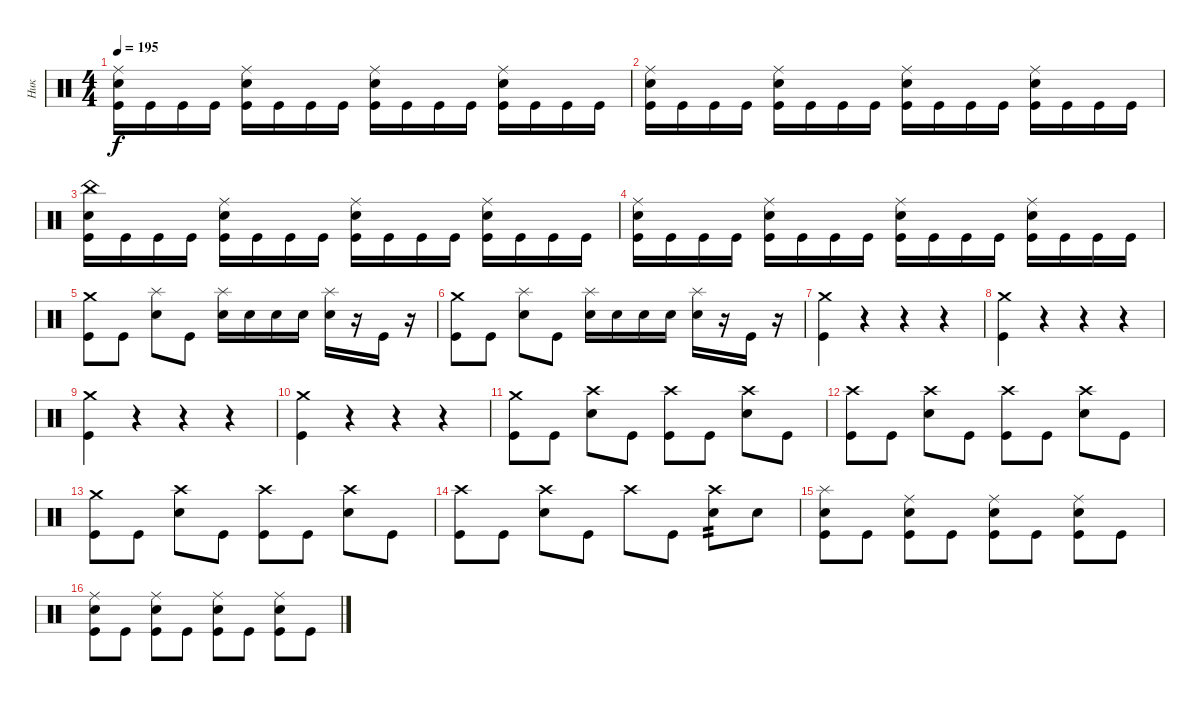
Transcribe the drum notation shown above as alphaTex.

\track ("Ник" "Ник") {instrument percussion}
\staff {score}
\articulation defaults
\ts (4 4)
\tempo 195
\clef neutral
\ks c
("Ride (middle)" "Snare (hit) 2" "Kick (hit)").16{dy f} "Kick (hit)".16 "Kick (hit)".16 "Kick (hit)".16 ("Ride (middle)" "Snare (hit) 2" "Kick (hit)").16 "Kick (hit)".16 "Kick (hit)".16 "Kick (hit)".16 ("Ride (middle)" "Snare (hit) 2" "Kick (hit)").16 "Kick (hit)".16 "Kick (hit)".16 "Kick (hit)".16 ("Ride (middle)" "Snare (hit) 2" "Kick (hit)").16 "Kick (hit)".16 "Kick (hit)".16 "Kick (hit)".16 |
("Ride (middle)" "Snare (hit) 2" "Kick (hit)").16 "Kick (hit)".16 "Kick (hit)".16 "Kick (hit)".16 ("Ride (middle)" "Snare (hit) 2" "Kick (hit)").16 "Kick (hit)".16 "Kick (hit)".16 "Kick (hit)".16 ("Ride (middle)" "Snare (hit) 2" "Kick (hit)").16 "Kick (hit)".16 "Kick (hit)".16 "Kick (hit)".16 ("Ride (middle)" "Snare (hit) 2" "Kick (hit)").16 "Kick (hit)".16 "Kick (hit)".16 "Kick (hit)".16 |
("China (hit)" "Snare (hit) 2" "Kick (hit)").16 "Kick (hit)".16 "Kick (hit)".16 "Kick (hit)".16 ("Ride (middle)" "Snare (hit) 2" "Kick (hit)").16 "Kick (hit)".16 "Kick (hit)".16 "Kick (hit)".16 ("Ride (middle)" "Snare (hit) 2" "Kick (hit)").16 "Kick (hit)".16 "Kick (hit)".16 "Kick (hit)".16 ("Ride (middle)" "Snare (hit) 2" "Kick (hit)").16 "Kick (hit)".16 "Kick (hit)".16 "Kick (hit)".16 |
("Ride (middle)" "Snare (hit) 2" "Kick (hit)").16 "Kick (hit)".16 "Kick (hit)".16 "Kick (hit)".16 ("Ride (middle)" "Snare (hit) 2" "Kick (hit)").16 "Kick (hit)".16 "Kick (hit)".16 "Kick (hit)".16 ("Ride (middle)" "Snare (hit) 2" "Kick (hit)").16 "Kick (hit)".16 "Kick (hit)".16 "Kick (hit)".16 ("Ride (middle)" "Snare (hit) 2" "Kick (hit)").16 "Kick (hit)".16 "Kick (hit)".16 "Kick (hit)".16 |
("Crash medium (hit)" "Kick (hit)").8 "Kick (hit)".8 ("Splash (hit)" "Snare (hit) 2").8 "Kick (hit)".8 ("Splash (hit)" "Snare (hit) 2").16 "Snare (hit) 2".16 "Snare (hit) 2".16 "Snare (hit) 2".16 ("Splash (hit)" "Snare (hit) 2").16 r.16 "Kick (hit)".16 r.16 |
("Crash medium (hit)" "Kick (hit)").8 "Kick (hit)".8 ("Splash (hit)" "Snare (hit) 2").8 "Kick (hit)".8 ("Splash (hit)" "Snare (hit) 2").16 "Snare (hit) 2".16 "Snare (hit) 2".16 "Snare (hit) 2".16 ("Splash (hit)" "Snare (hit) 2").16 r.16 "Kick (hit)".16 r.16 |
("Crash medium (hit)" "Kick (hit)").4 r.4 r.4 r.4 |
("Crash medium (hit)" "Kick (hit)").4 r.4 r.4 r.4 |
("Crash medium (hit)" "Kick (hit)").4 r.4 r.4 r.4 |
("Crash medium (hit)" "Kick (hit)").4 r.4 r.4 r.4 |
("Crash medium (hit)" "Kick (hit)").8 "Kick (hit)".8 ("Crash high (hit)" "Snare (hit) 2").8 "Kick (hit)".8 ("Crash high (hit)" "Kick (hit)").8 "Kick (hit)".8 ("Crash high (hit)" "Snare (hit) 2").8 "Kick (hit)".8 |
("Crash high (hit)" "Kick (hit)").8 "Kick (hit)".8 ("Crash high (hit)" "Snare (hit) 2").8 "Kick (hit)".8 ("Crash high (hit)" "Kick (hit)").8 "Kick (hit)".8 ("Crash high (hit)" "Snare (hit) 2").8 "Kick (hit)".8 |
("Crash medium (hit)" "Kick (hit)").8 "Kick (hit)".8 ("Crash high (hit)" "Snare (hit) 2").8 "Kick (hit)".8 ("Crash high (hit)" "Kick (hit)").8 "Kick (hit)".8 ("Crash high (hit)" "Snare (hit) 2").8 "Kick (hit)".8 |
("Crash high (hit)" "Kick (hit)").8 "Kick (hit)".8 ("Crash high (hit)" "Snare (hit) 2").8 "Kick (hit)".8 "Crash high (hit)".8 "Kick (hit)".8 ("Crash high (hit)" "Snare (hit) 2").8{tp 2} "Snare (hit) 2".8 |
("Splash (hit)" "Snare (hit) 2" "Kick (hit)").8 "Kick (hit)".8 ("Ride (middle)" "Snare (hit) 2" "Kick (hit)").8 "Kick (hit)".8 ("Ride (middle)" "Snare (hit) 2" "Kick (hit)").8 "Kick (hit)".8 ("Ride (middle)" "Snare (hit) 2" "Kick (hit)").8 "Kick (hit)".8 |
("Ride (middle)" "Snare (hit) 2" "Kick (hit)").8 "Kick (hit)".8 ("Ride (middle)" "Snare (hit) 2" "Kick (hit)").8 "Kick (hit)".8 ("Ride (middle)" "Snare (hit) 2" "Kick (hit)").8 "Kick (hit)".8 ("Ride (middle)" "Snare (hit) 2" "Kick (hit)").8 "Kick (hit)".8
